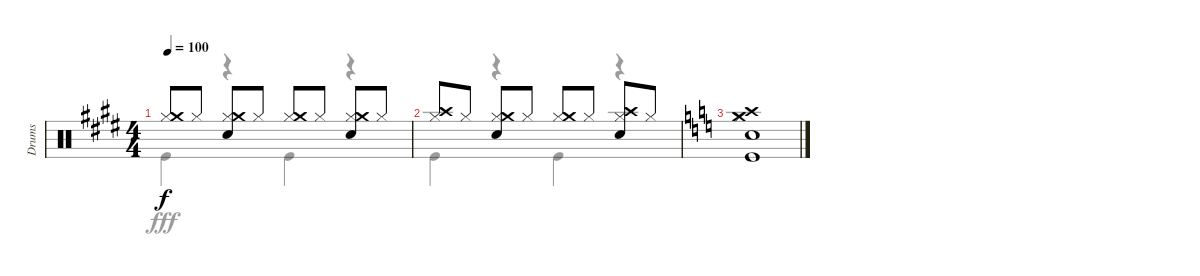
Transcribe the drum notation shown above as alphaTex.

\track ("Drums" "Drums") {instrument percussion}
\staff {score}
\articulation defaults
\voice
\ts (4 4)
\tempo 100
\clef neutral
\ks e
("Hi-Hat (closed)" "Crash medium (hit)").8{dy f} "Hi-Hat (closed)".8 ("Hi-Hat (closed)" "Snare (hit) 2" "Crash medium (hit)").8 "Hi-Hat (closed)".8 ("Hi-Hat (closed)" "Crash medium (hit)").8 "Hi-Hat (closed)".8 ("Hi-Hat (closed)" "Snare (hit) 2" "Crash medium (hit)").8 "Hi-Hat (closed)".8 |
("Hi-Hat (closed)" "Crash high (hit)").8 "Hi-Hat (closed)".8 ("Hi-Hat (closed)" "Snare (hit) 2" "Crash medium (hit)").8 "Hi-Hat (closed)".8 ("Hi-Hat (closed)" "Crash medium (hit)").8 "Hi-Hat (closed)".8 ("Hi-Hat (closed)" "Snare (hit) 2" "Crash high (hit)").8 "Hi-Hat (closed)".8 |
\ks c
("Hi-Hat (closed)" "Snare (hit) 2" "Crash high (hit)" "Crash medium (hit)" "Kick (hit)").1
\voice
\clef neutral
\ottava regular
\simile none
\ks e "Kick (hit)".4{dy fff}
r.4 "Kick (hit)".4 r.4 |
"Kick (hit)".4 r.4 "Kick (hit)".4 r.4 |
\ks c
